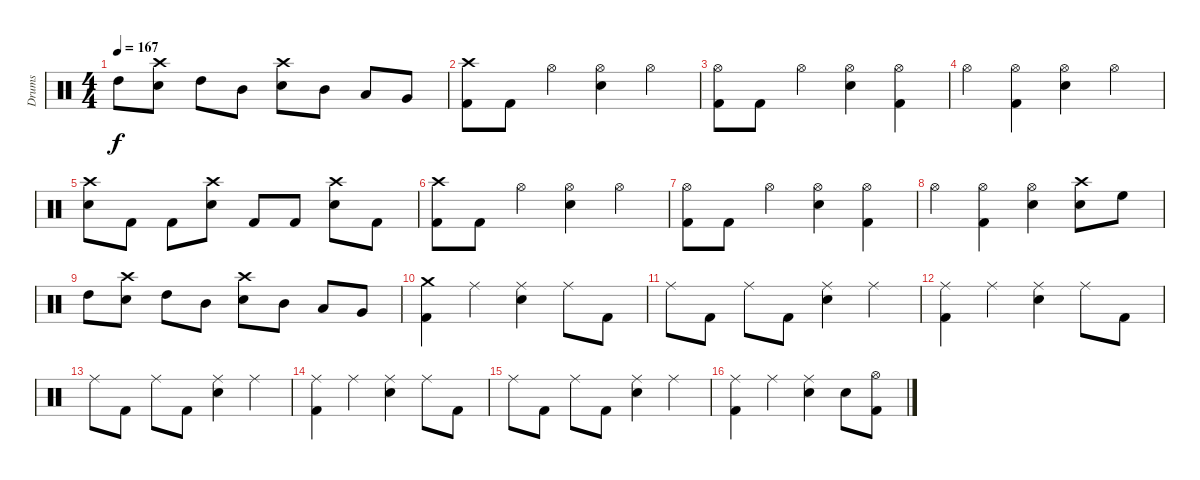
\track ("Drums" "Drums") {instrument percussion}
\staff {score}
\articulation defaults
\ts (4 4)
\tempo 167
\clef neutral
\ks c "High Tom (hit)".8{dy f}
("Crash high (hit)" "Snare (hit) 2").8 "High Tom (hit)".8 "Mid Tom (hit)".8 ("Crash high (hit)" "Snare (hit) 2").8 "Mid Tom (hit)".8 "Low Tom (hit)".8 "Very Low Tom (hit)".8 |
("Crash high (hit)" "Kick (hit) 2").8 "Kick (hit) 2".8 "Hi-Hat (open)".4 ("Hi-Hat (open)" "Snare (hit) 2").4 "Hi-Hat (open)".4 |
("Hi-Hat (open)" "Kick (hit) 2").8 "Kick (hit) 2".8 "Hi-Hat (open)".4 ("Hi-Hat (open)" "Snare (hit) 2").4 ("Hi-Hat (open)" "Kick (hit) 2").4 |
"Hi-Hat (open)".4 ("Hi-Hat (open)" "Kick (hit) 2").4 ("Hi-Hat (open)" "Snare (hit) 2").4 "Hi-Hat (open)".4 |
("Crash high (hit)" "Snare (hit) 2").8 "Kick (hit) 2".8 "Kick (hit) 2".8 ("Crash high (hit)" "Snare (hit) 2").8 "Kick (hit) 2".8 "Kick (hit) 2".8 ("Crash high (hit)" "Snare (hit) 2").8 "Kick (hit) 2".8 |
("Crash high (hit)" "Kick (hit) 2").8 "Kick (hit) 2".8 "Hi-Hat (open)".4 ("Hi-Hat (open)" "Snare (hit) 2").4 "Hi-Hat (open)".4 |
("Hi-Hat (open)" "Kick (hit) 2").8 "Kick (hit) 2".8 "Hi-Hat (open)".4 ("Hi-Hat (open)" "Snare (hit) 2").4 ("Hi-Hat (open)" "Kick (hit) 2").4 |
"Hi-Hat (open)".4 ("Hi-Hat (open)" "Kick (hit) 2").4 ("Hi-Hat (open)" "Snare (hit) 2").4 ("Crash high (hit)" "Snare (hit) 2").8 "High Floor Tom (hit)".8 |
"High Tom (hit)".8 ("Crash high (hit)" "Snare (hit) 2").8 "High Tom (hit)".8 "Mid Tom (hit)".8 ("Crash high (hit)" "Snare (hit) 2").8 "Mid Tom (hit)".8 "Low Tom (hit)".8 "Very Low Tom (hit)".8 |
("Crash medium (hit)" "Kick (hit) 2").4 "Ride (middle)".4 ("Ride (middle)" "Snare (hit) 2").4 "Ride (middle)".8 "Kick (hit) 2".8 |
"Ride (middle)".8 "Kick (hit) 2".8 "Ride (middle)".8 "Kick (hit) 2".8 ("Ride (middle)" "Snare (hit) 2").4 "Ride (middle)".4 |
("Ride (middle)" "Kick (hit) 2").4 "Ride (middle)".4 ("Ride (middle)" "Snare (hit) 2").4 "Ride (middle)".8 "Kick (hit) 2".8 |
"Ride (middle)".8 "Kick (hit) 2".8 "Ride (middle)".8 "Kick (hit) 2".8 ("Ride (middle)" "Snare (hit) 2").4 "Ride (middle)".4 |
("Ride (middle)" "Kick (hit) 2").4 "Ride (middle)".4 ("Ride (middle)" "Snare (hit) 2").4 "Ride (middle)".8 "Kick (hit) 2".8 |
"Ride (middle)".8 "Kick (hit) 2".8 "Ride (middle)".8 "Kick (hit) 2".8 ("Ride (middle)" "Snare (hit) 2").4 "Ride (middle)".4 |
("Ride (middle)" "Kick (hit) 2").4 "Ride (middle)".4 ("Ride (middle)" "Snare (hit) 2").4 "Snare (hit) 2".8 ("Hi-Hat (open)" "Kick (hit) 2").8
